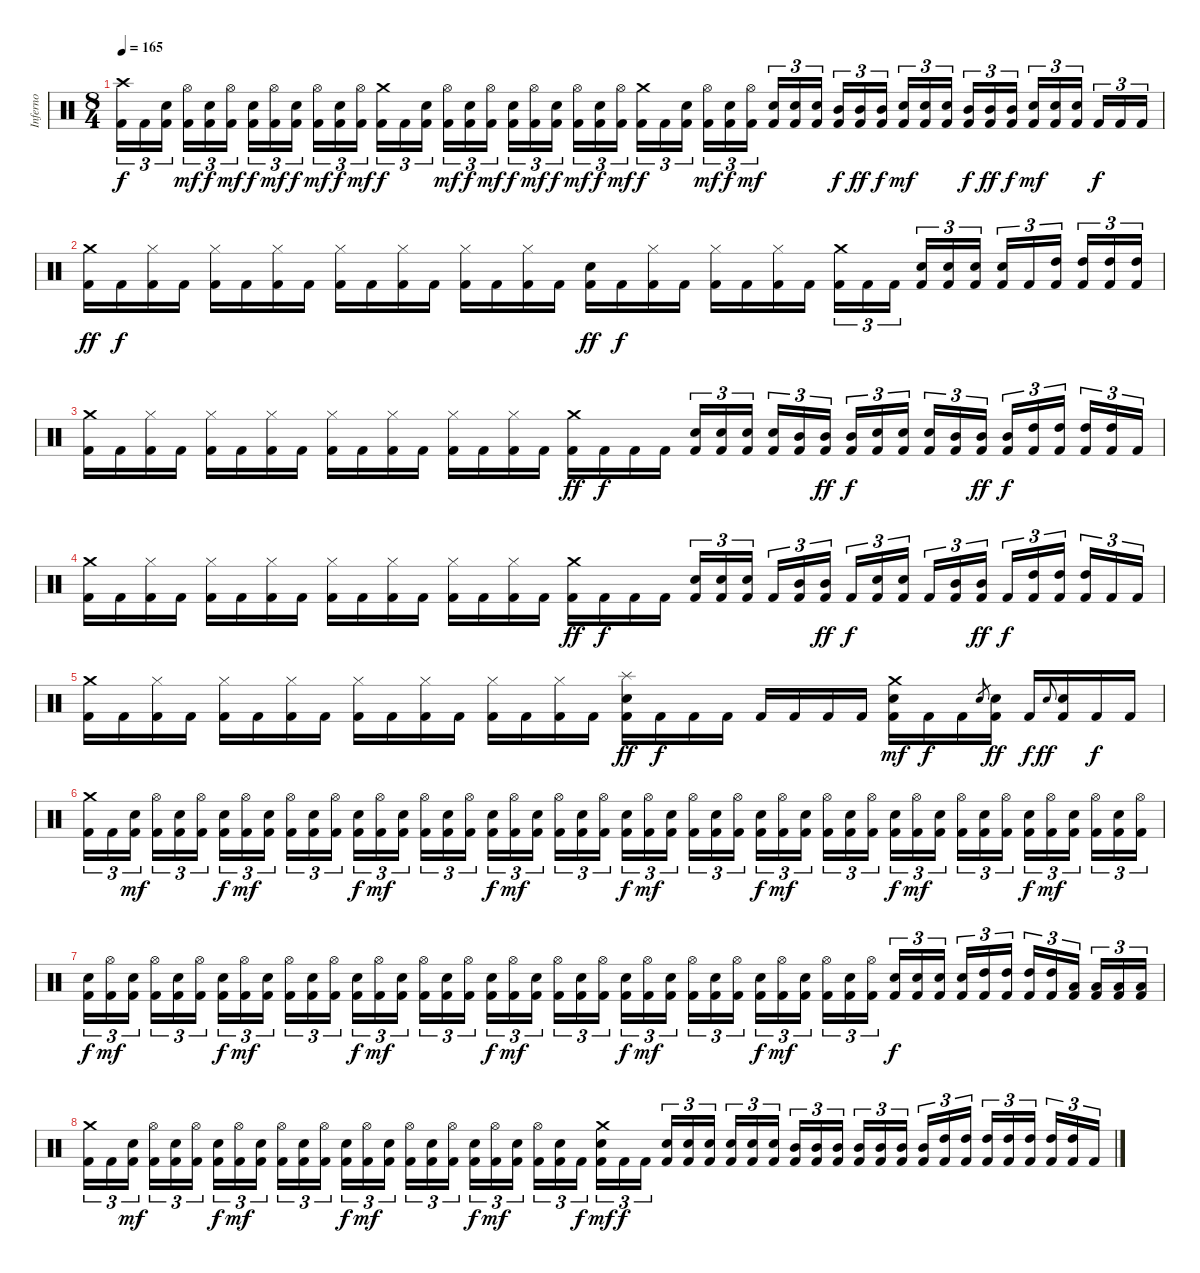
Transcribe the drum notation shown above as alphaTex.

\track ("Inferno" "Inferno") {instrument percussion}
\staff {score}
\articulation defaults
\ts (8 4)
\tempo 165
\clef neutral
\ks c
("Crash high (hit)" "Kick (hit) 2").16{tu (3 2) dy f} "Kick (hit) 2".16{tu (3 2)} ("Snare (hit) 2" "Kick (hit) 2").16{tu (3 2) beam splitsecondary} ("Hi-Hat (open)" "Kick (hit) 2").16{tu (3 2) dy mf} ("Snare (hit) 2" "Kick (hit) 2").16{tu (3 2) dy f} ("Hi-Hat (open)" "Kick (hit) 2").16{tu (3 2) dy mf} ("Snare (hit) 2" "Kick (hit) 2").16{tu (3 2) dy f} ("Hi-Hat (open)" "Kick (hit) 2").16{tu (3 2) dy mf} ("Snare (hit) 2" "Kick (hit) 2").16{tu (3 2) dy f beam splitsecondary} ("Hi-Hat (open)" "Kick (hit) 2").16{tu (3 2) dy mf} ("Snare (hit) 2" "Kick (hit) 2").16{tu (3 2) dy f} ("Hi-Hat (open)" "Kick (hit) 2").16{tu (3 2) dy mf} ("Crash medium (hit)" "Kick (hit) 2").16{tu (3 2) dy f} "Kick (hit) 2".16{tu (3 2)} ("Snare (hit) 2" "Kick (hit) 2").16{tu (3 2) beam splitsecondary} ("Hi-Hat (open)" "Kick (hit) 2").16{tu (3 2) dy mf} ("Snare (hit) 2" "Kick (hit) 2").16{tu (3 2) dy f} ("Hi-Hat (open)" "Kick (hit) 2").16{tu (3 2) dy mf} ("Snare (hit) 2" "Kick (hit) 2").16{tu (3 2) dy f} ("Hi-Hat (open)" "Kick (hit) 2").16{tu (3 2) dy mf} ("Snare (hit) 2" "Kick (hit) 2").16{tu (3 2) dy f beam splitsecondary} ("Hi-Hat (open)" "Kick (hit) 2").16{tu (3 2) dy mf} ("Snare (hit) 2" "Kick (hit) 2").16{tu (3 2) dy f} ("Hi-Hat (open)" "Kick (hit) 2").16{tu (3 2) dy mf} ("Crash medium (hit)" "Kick (hit) 2").16{tu (3 2) dy f} "Kick (hit) 2".16{tu (3 2)} ("Snare (hit) 2" "Kick (hit) 2").16{tu (3 2) beam splitsecondary} ("Hi-Hat (open)" "Kick (hit) 2").16{tu (3 2) dy mf} ("Snare (hit) 2" "Kick (hit) 2").16{tu (3 2) dy f} ("Hi-Hat (open)" "Kick (hit) 2").16{tu (3 2) dy mf} ("Snare (hit) 2" "Kick (hit) 2").16{tu (3 2)} ("Snare (hit) 2" "Kick (hit) 2").16{tu (3 2)} ("Snare (hit) 2" "Kick (hit) 2").16{tu (3 2) beam splitsecondary} ("Mid Tom (hit)" "Kick (hit) 2").16{tu (3 2) dy f} ("Mid Tom (hit)" "Kick (hit) 2").16{tu (3 2) dy ff} ("Mid Tom (hit)" "Kick (hit) 2").16{tu (3 2) dy f} ("Snare (hit) 2" "Kick (hit) 2").16{tu (3 2) dy mf} ("Snare (hit) 2" "Kick (hit) 2").16{tu (3 2)} ("Snare (hit) 2" "Kick (hit) 2").16{tu (3 2) beam splitsecondary} ("Mid Tom (hit)" "Kick (hit) 2").16{tu (3 2) dy f} ("Mid Tom (hit)" "Kick (hit) 2").16{tu (3 2) dy ff} ("Mid Tom (hit)" "Kick (hit) 2").16{tu (3 2) dy f} ("Snare (hit) 2" "Kick (hit) 2").16{tu (3 2) dy mf} ("Snare (hit) 2" "Kick (hit) 2").16{tu (3 2)} ("Snare (hit) 2" "Kick (hit) 2").16{tu (3 2) beam splitsecondary} "Kick (hit) 2".16{tu (3 2) dy f} "Kick (hit) 2".16{tu (3 2)} "Kick (hit) 2".16{tu (3 2)} |
("Crash medium (hit)" "Kick (hit) 2").16{dy ff} "Kick (hit) 2".16{dy f} ("Hi-Hat (closed)" "Kick (hit) 2").16 "Kick (hit) 2".16 ("Hi-Hat (closed)" "Kick (hit) 2").16 "Kick (hit) 2".16 ("Hi-Hat (closed)" "Kick (hit) 2").16 "Kick (hit) 2".16 ("Hi-Hat (closed)" "Kick (hit) 2").16 "Kick (hit) 2".16 ("Hi-Hat (closed)" "Kick (hit) 2").16 "Kick (hit) 2".16 ("Hi-Hat (closed)" "Kick (hit) 2").16 "Kick (hit) 2".16 ("Hi-Hat (closed)" "Kick (hit) 2").16 "Kick (hit) 2".16 ("Snare (hit) 2" "Kick (hit) 2").16{dy ff} "Kick (hit) 2".16{dy f} ("Hi-Hat (closed)" "Kick (hit) 2").16 "Kick (hit) 2".16 ("Hi-Hat (closed)" "Kick (hit) 2").16 "Kick (hit) 2".16 ("Hi-Hat (closed)" "Kick (hit) 2").16 "Kick (hit) 2".16 ("Crash medium (hit)" "Kick (hit) 2").16{tu (3 2)} "Kick (hit) 2".16{tu (3 2)} "Kick (hit) 2".16{tu (3 2) beam splitsecondary} ("Snare (hit) 2" "Kick (hit) 2").16{tu (3 2)} ("Snare (hit) 2" "Kick (hit) 2").16{tu (3 2)} ("Snare (hit) 2" "Kick (hit) 2").16{tu (3 2)} ("Snare (hit) 2" "Kick (hit) 2").16{tu (3 2)} "Kick (hit) 2".16{tu (3 2)} ("High Tom (hit)" "Kick (hit) 2").16{tu (3 2) beam splitsecondary} ("High Tom (hit)" "Kick (hit) 2").16{tu (3 2)} ("High Tom (hit)" "Kick (hit) 2").16{tu (3 2)} ("High Tom (hit)" "Kick (hit) 2").16{tu (3 2)} |
("Crash medium (hit)" "Kick (hit) 2").16 "Kick (hit) 2".16 ("Hi-Hat (closed)" "Kick (hit) 2").16 "Kick (hit) 2".16 ("Hi-Hat (closed)" "Kick (hit) 2").16 "Kick (hit) 2".16 ("Hi-Hat (closed)" "Kick (hit) 2").16 "Kick (hit) 2".16 ("Hi-Hat (closed)" "Kick (hit) 2").16 "Kick (hit) 2".16 ("Hi-Hat (closed)" "Kick (hit) 2").16 "Kick (hit) 2".16 ("Hi-Hat (closed)" "Kick (hit) 2").16 "Kick (hit) 2".16 ("Hi-Hat (closed)" "Kick (hit) 2").16 "Kick (hit) 2".16 ("Crash medium (hit)" "Kick (hit) 2").16{dy ff} "Kick (hit) 2".16{dy f} "Kick (hit) 2".16 "Kick (hit) 2".16 ("Snare (hit) 2" "Kick (hit) 2").16{tu (3 2)} ("Snare (hit) 2" "Kick (hit) 2").16{tu (3 2)} ("Snare (hit) 2" "Kick (hit) 2").16{tu (3 2) beam splitsecondary} ("Snare (hit) 2" "Kick (hit) 2").16{tu (3 2)} ("Mid Tom (hit)" "Kick (hit) 2").16{tu (3 2)} ("Mid Tom (hit)" "Kick (hit) 2").16{tu (3 2) dy ff} ("Mid Tom (hit)" "Kick (hit) 2").16{tu (3 2) dy f} ("Snare (hit) 2" "Kick (hit) 2").16{tu (3 2)} ("Snare (hit) 2" "Kick (hit) 2").16{tu (3 2) beam splitsecondary} ("Snare (hit) 2" "Kick (hit) 2").16{tu (3 2)} ("Mid Tom (hit)" "Kick (hit) 2").16{tu (3 2)} ("Mid Tom (hit)" "Kick (hit) 2").16{tu (3 2) dy ff} ("Mid Tom (hit)" "Kick (hit) 2").16{tu (3 2) dy f} ("High Tom (hit)" "Kick (hit) 2").16{tu (3 2)} ("High Tom (hit)" "Kick (hit) 2").16{tu (3 2) beam splitsecondary} ("High Tom (hit)" "Kick (hit) 2").16{tu (3 2)} ("High Tom (hit)" "Kick (hit) 2").16{tu (3 2)} "Kick (hit) 2".16{tu (3 2)} |
("Crash medium (hit)" "Kick (hit) 2").16 "Kick (hit) 2".16 ("Hi-Hat (closed)" "Kick (hit) 2").16 "Kick (hit) 2".16 ("Hi-Hat (closed)" "Kick (hit) 2").16 "Kick (hit) 2".16 ("Hi-Hat (closed)" "Kick (hit) 2").16 "Kick (hit) 2".16 ("Hi-Hat (closed)" "Kick (hit) 2").16 "Kick (hit) 2".16 ("Hi-Hat (closed)" "Kick (hit) 2").16 "Kick (hit) 2".16 ("Hi-Hat (closed)" "Kick (hit) 2").16 "Kick (hit) 2".16 ("Hi-Hat (closed)" "Kick (hit) 2").16 "Kick (hit) 2".16 ("Crash medium (hit)" "Kick (hit) 2").16{dy ff} "Kick (hit) 2".16{dy f} "Kick (hit) 2".16 "Kick (hit) 2".16 ("Snare (hit) 2" "Kick (hit) 2").16{tu (3 2)} ("Snare (hit) 2" "Kick (hit) 2").16{tu (3 2)} ("Snare (hit) 2" "Kick (hit) 2").16{tu (3 2) beam splitsecondary} "Kick (hit) 2".16{tu (3 2)} ("Mid Tom (hit)" "Kick (hit) 2").16{tu (3 2)} ("Mid Tom (hit)" "Kick (hit) 2").16{tu (3 2) dy ff} "Kick (hit) 2".16{tu (3 2) dy f} ("Snare (hit) 2" "Kick (hit) 2").16{tu (3 2)} ("Snare (hit) 2" "Kick (hit) 2").16{tu (3 2) beam splitsecondary} "Kick (hit) 2".16{tu (3 2)} ("Mid Tom (hit)" "Kick (hit) 2").16{tu (3 2)} ("Mid Tom (hit)" "Kick (hit) 2").16{tu (3 2) dy ff} "Kick (hit) 2".16{tu (3 2) dy f} ("High Tom (hit)" "Kick (hit) 2").16{tu (3 2)} ("High Tom (hit)" "Kick (hit) 2").16{tu (3 2) beam splitsecondary} ("High Tom (hit)" "Kick (hit) 2").16{tu (3 2)} "Kick (hit) 2".16{tu (3 2)} "Kick (hit) 2".16{tu (3 2)} |
("Crash medium (hit)" "Kick (hit) 2").16 "Kick (hit) 2".16 ("Hi-Hat (closed)" "Kick (hit) 2").16 "Kick (hit) 2".16 ("Hi-Hat (closed)" "Kick (hit) 2").16 "Kick (hit) 2".16 ("Hi-Hat (closed)" "Kick (hit) 2").16 "Kick (hit) 2".16 ("Hi-Hat (closed)" "Kick (hit) 2").16 "Kick (hit) 2".16 ("Hi-Hat (closed)" "Kick (hit) 2").16 "Kick (hit) 2".16 ("Hi-Hat (closed)" "Kick (hit) 2").16 "Kick (hit) 2".16 ("Hi-Hat (closed)" "Kick (hit) 2").16 "Kick (hit) 2".16 ("Splash (hit)" "Snare (hit) 2" "Kick (hit) 2").16{dy ff} "Kick (hit) 2".16{dy f} "Kick (hit) 2".16 "Kick (hit) 2".16 "Kick (hit) 2".16 "Kick (hit) 2".16 "Kick (hit) 2".16 "Kick (hit) 2".16 ("Crash medium (hit)" "Snare (hit) 2" "Kick (hit) 2").16{dy mf} "Kick (hit) 2".16{dy f} "Kick (hit) 2".16 "Snare (hit) 2".8{gr} ("Snare (hit) 2" "Kick (hit) 2").16{dy ff} "Kick (hit) 2".16{dy f} "Snare (hit) 2".8{gr onbeat dy ff} ("Snare (hit) 2" "Kick (hit) 2").16 "Kick (hit) 2".16{dy f} "Kick (hit) 2".16 |
("Crash medium (hit)" "Kick (hit) 2").16{tu (3 2)} "Kick (hit) 2".16{tu (3 2)} ("Snare (hit) 2" "Kick (hit) 2").16{tu (3 2) dy mf beam splitsecondary} ("Hi-Hat (open)" "Kick (hit) 2").16{tu (3 2)} ("Snare (hit) 2" "Kick (hit) 2").16{tu (3 2)} ("Hi-Hat (open)" "Kick (hit) 2").16{tu (3 2)} ("Snare (hit) 2" "Kick (hit) 2").16{tu (3 2) dy f} ("Hi-Hat (open)" "Kick (hit) 2").16{tu (3 2) dy mf} ("Snare (hit) 2" "Kick (hit) 2").16{tu (3 2) beam splitsecondary} ("Hi-Hat (open)" "Kick (hit) 2").16{tu (3 2)} ("Snare (hit) 2" "Kick (hit) 2").16{tu (3 2)} ("Hi-Hat (open)" "Kick (hit) 2").16{tu (3 2)} ("Snare (hit) 2" "Kick (hit) 2").16{tu (3 2) dy f} ("Hi-Hat (open)" "Kick (hit) 2").16{tu (3 2) dy mf} ("Snare (hit) 2" "Kick (hit) 2").16{tu (3 2) beam splitsecondary} ("Hi-Hat (open)" "Kick (hit) 2").16{tu (3 2)} ("Snare (hit) 2" "Kick (hit) 2").16{tu (3 2)} ("Hi-Hat (open)" "Kick (hit) 2").16{tu (3 2)} ("Snare (hit) 2" "Kick (hit) 2").16{tu (3 2) dy f} ("Hi-Hat (open)" "Kick (hit) 2").16{tu (3 2) dy mf} ("Snare (hit) 2" "Kick (hit) 2").16{tu (3 2) beam splitsecondary} ("Hi-Hat (open)" "Kick (hit) 2").16{tu (3 2)} ("Snare (hit) 2" "Kick (hit) 2").16{tu (3 2)} ("Hi-Hat (open)" "Kick (hit) 2").16{tu (3 2)} ("Snare (hit) 2" "Kick (hit) 2").16{tu (3 2) dy f} ("Hi-Hat (open)" "Kick (hit) 2").16{tu (3 2) dy mf} ("Snare (hit) 2" "Kick (hit) 2").16{tu (3 2) beam splitsecondary} ("Hi-Hat (open)" "Kick (hit) 2").16{tu (3 2)} ("Snare (hit) 2" "Kick (hit) 2").16{tu (3 2)} ("Hi-Hat (open)" "Kick (hit) 2").16{tu (3 2)} ("Snare (hit) 2" "Kick (hit) 2").16{tu (3 2) dy f} ("Hi-Hat (open)" "Kick (hit) 2").16{tu (3 2) dy mf} ("Snare (hit) 2" "Kick (hit) 2").16{tu (3 2) beam splitsecondary} ("Hi-Hat (open)" "Kick (hit) 2").16{tu (3 2)} ("Snare (hit) 2" "Kick (hit) 2").16{tu (3 2)} ("Hi-Hat (open)" "Kick (hit) 2").16{tu (3 2)} ("Snare (hit) 2" "Kick (hit) 2").16{tu (3 2) dy f} ("Hi-Hat (open)" "Kick (hit) 2").16{tu (3 2) dy mf} ("Snare (hit) 2" "Kick (hit) 2").16{tu (3 2) beam splitsecondary} ("Hi-Hat (open)" "Kick (hit) 2").16{tu (3 2)} ("Snare (hit) 2" "Kick (hit) 2").16{tu (3 2)} ("Hi-Hat (open)" "Kick (hit) 2").16{tu (3 2)} ("Snare (hit) 2" "Kick (hit) 2").16{tu (3 2) dy f} ("Hi-Hat (open)" "Kick (hit) 2").16{tu (3 2) dy mf} ("Snare (hit) 2" "Kick (hit) 2").16{tu (3 2) beam splitsecondary} ("Hi-Hat (open)" "Kick (hit) 2").16{tu (3 2)} ("Snare (hit) 2" "Kick (hit) 2").16{tu (3 2)} ("Hi-Hat (open)" "Kick (hit) 2").16{tu (3 2)} |
("Snare (hit) 2" "Kick (hit) 2").16{tu (3 2) dy f} ("Hi-Hat (open)" "Kick (hit) 2").16{tu (3 2) dy mf} ("Snare (hit) 2" "Kick (hit) 2").16{tu (3 2) beam splitsecondary} ("Hi-Hat (open)" "Kick (hit) 2").16{tu (3 2)} ("Snare (hit) 2" "Kick (hit) 2").16{tu (3 2)} ("Hi-Hat (open)" "Kick (hit) 2").16{tu (3 2)} ("Snare (hit) 2" "Kick (hit) 2").16{tu (3 2) dy f} ("Hi-Hat (open)" "Kick (hit) 2").16{tu (3 2) dy mf} ("Snare (hit) 2" "Kick (hit) 2").16{tu (3 2) beam splitsecondary} ("Hi-Hat (open)" "Kick (hit) 2").16{tu (3 2)} ("Snare (hit) 2" "Kick (hit) 2").16{tu (3 2)} ("Hi-Hat (open)" "Kick (hit) 2").16{tu (3 2)} ("Snare (hit) 2" "Kick (hit) 2").16{tu (3 2) dy f} ("Hi-Hat (open)" "Kick (hit) 2").16{tu (3 2) dy mf} ("Snare (hit) 2" "Kick (hit) 2").16{tu (3 2) beam splitsecondary} ("Hi-Hat (open)" "Kick (hit) 2").16{tu (3 2)} ("Snare (hit) 2" "Kick (hit) 2").16{tu (3 2)} ("Hi-Hat (open)" "Kick (hit) 2").16{tu (3 2)} ("Snare (hit) 2" "Kick (hit) 2").16{tu (3 2) dy f} ("Hi-Hat (open)" "Kick (hit) 2").16{tu (3 2) dy mf} ("Snare (hit) 2" "Kick (hit) 2").16{tu (3 2) beam splitsecondary} ("Hi-Hat (open)" "Kick (hit) 2").16{tu (3 2)} ("Snare (hit) 2" "Kick (hit) 2").16{tu (3 2)} ("Hi-Hat (open)" "Kick (hit) 2").16{tu (3 2)} ("Snare (hit) 2" "Kick (hit) 2").16{tu (3 2) dy f} ("Hi-Hat (open)" "Kick (hit) 2").16{tu (3 2) dy mf} ("Snare (hit) 2" "Kick (hit) 2").16{tu (3 2) beam splitsecondary} ("Hi-Hat (open)" "Kick (hit) 2").16{tu (3 2)} ("Snare (hit) 2" "Kick (hit) 2").16{tu (3 2)} ("Hi-Hat (open)" "Kick (hit) 2").16{tu (3 2)} ("Snare (hit) 2" "Kick (hit) 2").16{tu (3 2) dy f} ("Hi-Hat (open)" "Kick (hit) 2").16{tu (3 2) dy mf} ("Snare (hit) 2" "Kick (hit) 2").16{tu (3 2) beam splitsecondary} ("Hi-Hat (open)" "Kick (hit) 2").16{tu (3 2)} ("Snare (hit) 2" "Kick (hit) 2").16{tu (3 2)} ("Hi-Hat (open)" "Kick (hit) 2").16{tu (3 2)} ("Snare (hit) 2" "Kick (hit) 2").16{tu (3 2) dy f} ("Snare (hit) 2" "Kick (hit) 2").16{tu (3 2)} ("Snare (hit) 2" "Kick (hit) 2").16{tu (3 2) beam splitsecondary} ("Snare (hit) 2" "Kick (hit) 2").16{tu (3 2)} ("High Tom (hit)" "Kick (hit) 2").16{tu (3 2)} ("High Tom (hit)" "Kick (hit) 2").16{tu (3 2)} ("High Tom (hit)" "Kick (hit) 2").16{tu (3 2)} ("High Tom (hit)" "Kick (hit) 2").16{tu (3 2)} ("Low Tom (hit)" "Kick (hit) 2").16{tu (3 2) beam splitsecondary} ("Low Tom (hit)" "Kick (hit) 2").16{tu (3 2)} ("Low Tom (hit)" "Kick (hit) 2").16{tu (3 2)} ("Low Tom (hit)" "Kick (hit) 2").16{tu (3 2)} |
("Crash medium (hit)" "Kick (hit) 2").16{tu (3 2)} "Kick (hit) 2".16{tu (3 2)} ("Snare (hit) 2" "Kick (hit) 2").16{tu (3 2) dy mf beam splitsecondary} ("Hi-Hat (open)" "Kick (hit) 2").16{tu (3 2)} ("Snare (hit) 2" "Kick (hit) 2").16{tu (3 2)} ("Hi-Hat (open)" "Kick (hit) 2").16{tu (3 2)} ("Snare (hit) 2" "Kick (hit) 2").16{tu (3 2) dy f} ("Hi-Hat (open)" "Kick (hit) 2").16{tu (3 2) dy mf} ("Snare (hit) 2" "Kick (hit) 2").16{tu (3 2) beam splitsecondary} ("Hi-Hat (open)" "Kick (hit) 2").16{tu (3 2)} ("Snare (hit) 2" "Kick (hit) 2").16{tu (3 2)} ("Hi-Hat (open)" "Kick (hit) 2").16{tu (3 2)} ("Snare (hit) 2" "Kick (hit) 2").16{tu (3 2) dy f} ("Hi-Hat (open)" "Kick (hit) 2").16{tu (3 2) dy mf} ("Snare (hit) 2" "Kick (hit) 2").16{tu (3 2) beam splitsecondary} ("Hi-Hat (open)" "Kick (hit) 2").16{tu (3 2)} ("Snare (hit) 2" "Kick (hit) 2").16{tu (3 2)} ("Hi-Hat (open)" "Kick (hit) 2").16{tu (3 2)} ("Snare (hit) 2" "Kick (hit) 2").16{tu (3 2) dy f} ("Hi-Hat (open)" "Kick (hit) 2").16{tu (3 2) dy mf} ("Snare (hit) 2" "Kick (hit) 2").16{tu (3 2) beam splitsecondary} ("Hi-Hat (open)" "Kick (hit) 2").16{tu (3 2)} ("Snare (hit) 2" "Kick (hit) 2").16{tu (3 2)} "Kick (hit) 2".16{tu (3 2) dy f} ("Snare (hit) 2" "Crash medium (hit)" "Kick (hit) 2").16{tu (3 2) dy mf} "Kick (hit) 2".16{tu (3 2) dy f} "Kick (hit) 2".16{tu (3 2) beam splitsecondary} ("Snare (hit) 2" "Kick (hit) 2").16{tu (3 2)} ("Snare (hit) 2" "Kick (hit) 2").16{tu (3 2)} ("Snare (hit) 2" "Kick (hit) 2").16{tu (3 2)} ("Snare (hit) 2" "Kick (hit) 2").16{tu (3 2)} ("Snare (hit) 2" "Kick (hit) 2").16{tu (3 2)} ("Snare (hit) 2" "Kick (hit) 2").16{tu (3 2) beam splitsecondary} ("Mid Tom (hit)" "Kick (hit) 2").16{tu (3 2)} ("Mid Tom (hit)" "Kick (hit) 2").16{tu (3 2)} ("Mid Tom (hit)" "Kick (hit) 2").16{tu (3 2)} ("Mid Tom (hit)" "Kick (hit) 2").16{tu (3 2)} ("Mid Tom (hit)" "Kick (hit) 2").16{tu (3 2)} ("Mid Tom (hit)" "Kick (hit) 2").16{tu (3 2) beam splitsecondary} ("Mid Tom (hit)" "Kick (hit) 2").16{tu (3 2)} ("High Tom (hit)" "Kick (hit) 2").16{tu (3 2)} ("High Tom (hit)" "Kick (hit) 2").16{tu (3 2)} ("High Tom (hit)" "Kick (hit) 2").16{tu (3 2)} ("High Tom (hit)" "Kick (hit) 2").16{tu (3 2)} ("High Tom (hit)" "Kick (hit) 2").16{tu (3 2) beam splitsecondary} ("High Tom (hit)" "Kick (hit) 2").16{tu (3 2)} ("High Tom (hit)" "Kick (hit) 2").16{tu (3 2)} "Kick (hit) 2".16{tu (3 2)}
